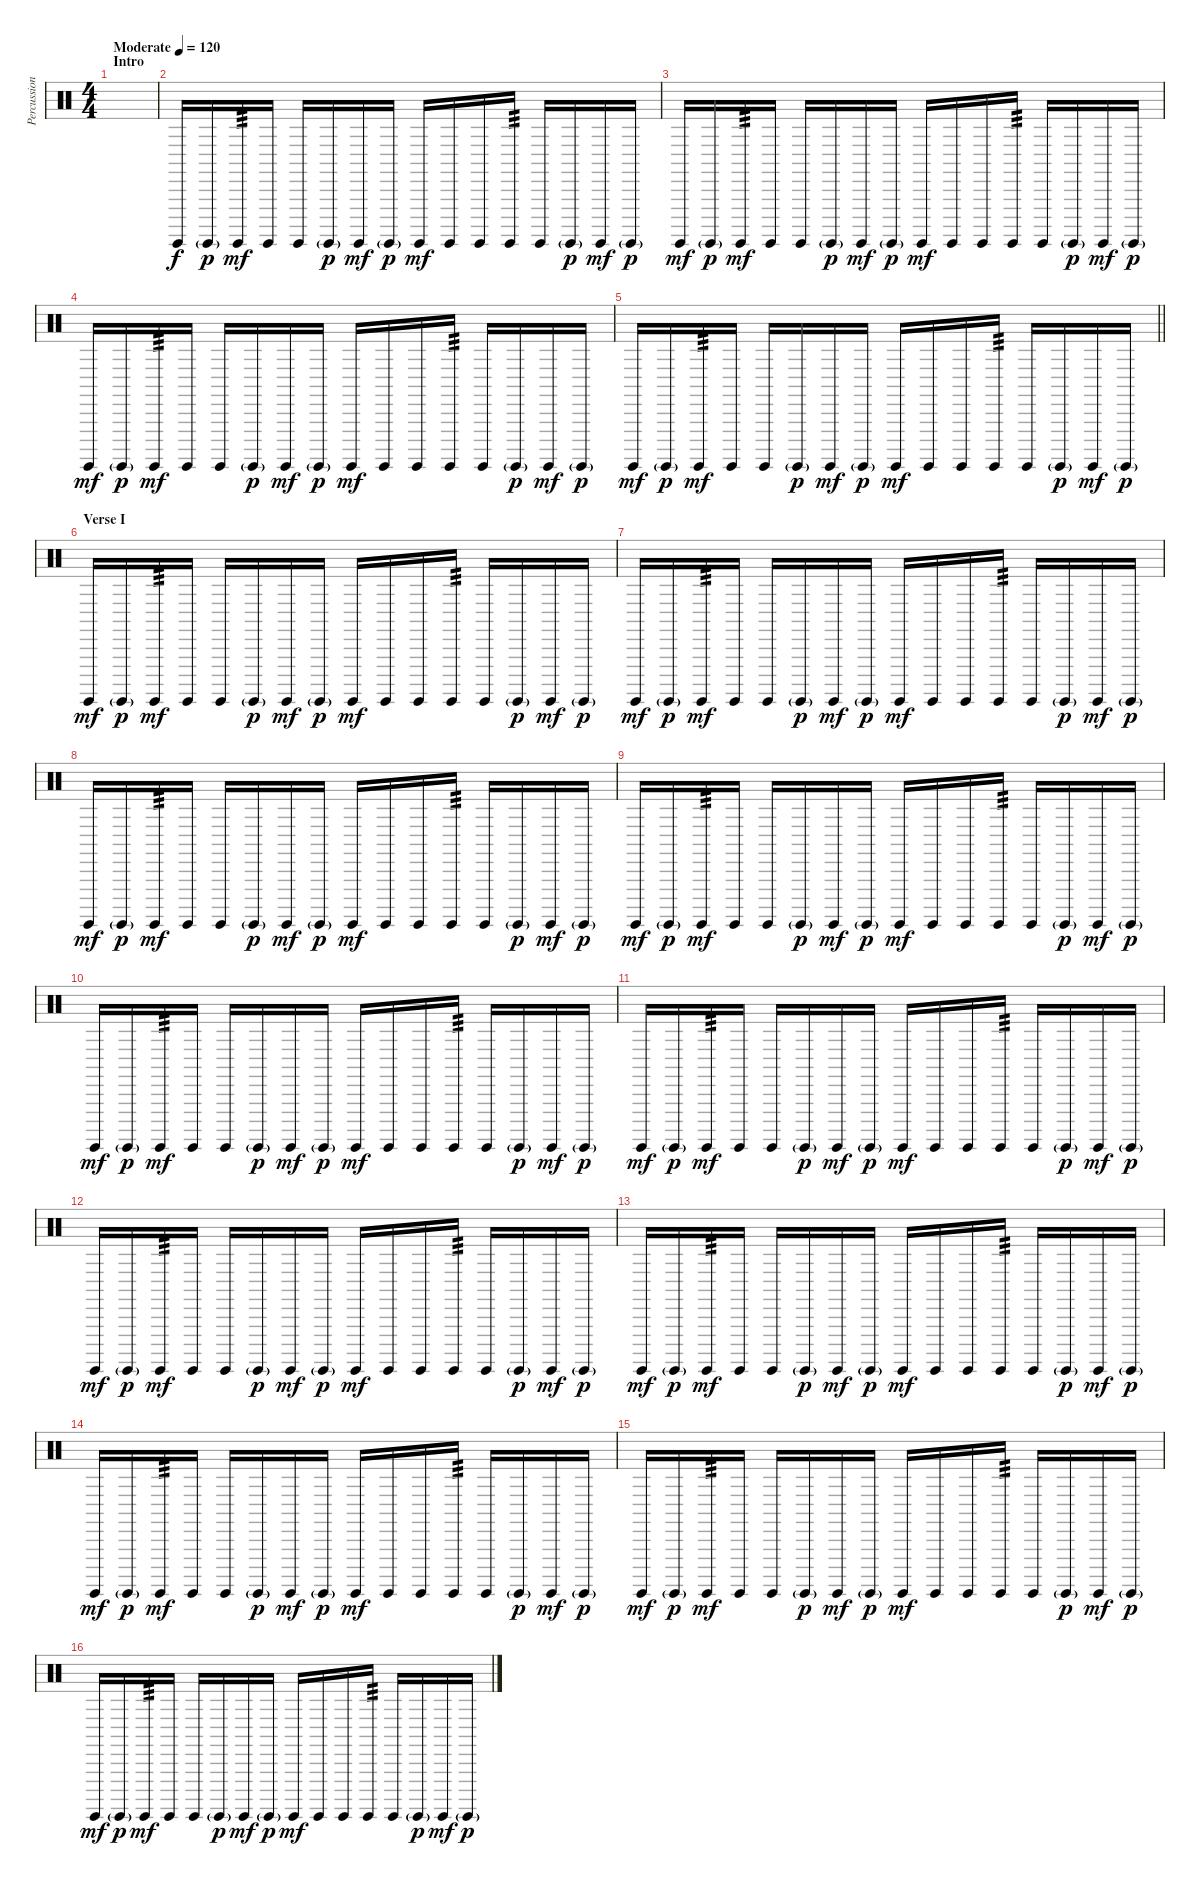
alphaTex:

\track ("Percussions" "Percussion") {instrument percussion}
\staff {score}
\articulation defaults
\ts (4 4)
\section ("" "Intro")
\tempo (120 "Moderate")
\clef neutral
\ks c
|
"Surdo (hit)".16 "Surdo (hit)"{g}.16{dy p} "Surdo (hit)".16{tp 3 dy mf} "Surdo (hit)".16 "Surdo (hit)".16 "Surdo (hit)"{g}.16{dy p} "Surdo (hit)".16{dy mf} "Surdo (hit)"{g}.16{dy p} "Surdo (hit)".16{dy mf} "Surdo (hit)".16 "Surdo (hit)".16 "Surdo (hit)".16{tp 3} "Surdo (hit)".16 "Surdo (hit)"{g}.16{dy p} "Surdo (hit)".16{dy mf} "Surdo (hit)"{g}.16{dy p} |
"Surdo (hit)".16{dy mf} "Surdo (hit)"{g}.16{dy p} "Surdo (hit)".16{tp 3 dy mf} "Surdo (hit)".16 "Surdo (hit)".16 "Surdo (hit)"{g}.16{dy p} "Surdo (hit)".16{dy mf} "Surdo (hit)"{g}.16{dy p} "Surdo (hit)".16{dy mf} "Surdo (hit)".16 "Surdo (hit)".16 "Surdo (hit)".16{tp 3} "Surdo (hit)".16 "Surdo (hit)"{g}.16{dy p} "Surdo (hit)".16{dy mf} "Surdo (hit)"{g}.16{dy p} |
"Surdo (hit)".16{dy mf} "Surdo (hit)"{g}.16{dy p} "Surdo (hit)".16{tp 3 dy mf} "Surdo (hit)".16 "Surdo (hit)".16 "Surdo (hit)"{g}.16{dy p} "Surdo (hit)".16{dy mf} "Surdo (hit)"{g}.16{dy p} "Surdo (hit)".16{dy mf} "Surdo (hit)".16 "Surdo (hit)".16 "Surdo (hit)".16{tp 3} "Surdo (hit)".16 "Surdo (hit)"{g}.16{dy p} "Surdo (hit)".16{dy mf} "Surdo (hit)"{g}.16{dy p} |
\barLineRight lightlight "Surdo (hit)".16{dy mf} "Surdo (hit)"{g}.16{dy p} "Surdo (hit)".16{tp 3 dy mf} "Surdo (hit)".16 "Surdo (hit)".16 "Surdo (hit)"{g}.16{dy p} "Surdo (hit)".16{dy mf} "Surdo (hit)"{g}.16{dy p} "Surdo (hit)".16{dy mf} "Surdo (hit)".16 "Surdo (hit)".16 "Surdo (hit)".16{tp 3} "Surdo (hit)".16 "Surdo (hit)"{g}.16{dy p} "Surdo (hit)".16{dy mf} "Surdo (hit)"{g}.16{dy p}
|
\section ("" "Verse I")
"Surdo (hit)".16{dy mf} "Surdo (hit)"{g}.16{dy p} "Surdo (hit)".16{tp 3 dy mf} "Surdo (hit)".16 "Surdo (hit)".16 "Surdo (hit)"{g}.16{dy p} "Surdo (hit)".16{dy mf} "Surdo (hit)"{g}.16{dy p} "Surdo (hit)".16{dy mf} "Surdo (hit)".16 "Surdo (hit)".16 "Surdo (hit)".16{tp 3} "Surdo (hit)".16 "Surdo (hit)"{g}.16{dy p} "Surdo (hit)".16{dy mf} "Surdo (hit)"{g}.16{dy p} |
"Surdo (hit)".16{dy mf} "Surdo (hit)"{g}.16{dy p} "Surdo (hit)".16{tp 3 dy mf} "Surdo (hit)".16 "Surdo (hit)".16 "Surdo (hit)"{g}.16{dy p} "Surdo (hit)".16{dy mf} "Surdo (hit)"{g}.16{dy p} "Surdo (hit)".16{dy mf} "Surdo (hit)".16 "Surdo (hit)".16 "Surdo (hit)".16{tp 3} "Surdo (hit)".16 "Surdo (hit)"{g}.16{dy p} "Surdo (hit)".16{dy mf} "Surdo (hit)"{g}.16{dy p} |
"Surdo (hit)".16{dy mf} "Surdo (hit)"{g}.16{dy p} "Surdo (hit)".16{tp 3 dy mf} "Surdo (hit)".16 "Surdo (hit)".16 "Surdo (hit)"{g}.16{dy p} "Surdo (hit)".16{dy mf} "Surdo (hit)"{g}.16{dy p} "Surdo (hit)".16{dy mf} "Surdo (hit)".16 "Surdo (hit)".16 "Surdo (hit)".16{tp 3} "Surdo (hit)".16 "Surdo (hit)"{g}.16{dy p} "Surdo (hit)".16{dy mf} "Surdo (hit)"{g}.16{dy p} |
"Surdo (hit)".16{dy mf} "Surdo (hit)"{g}.16{dy p} "Surdo (hit)".16{tp 3 dy mf} "Surdo (hit)".16 "Surdo (hit)".16 "Surdo (hit)"{g}.16{dy p} "Surdo (hit)".16{dy mf} "Surdo (hit)"{g}.16{dy p} "Surdo (hit)".16{dy mf} "Surdo (hit)".16 "Surdo (hit)".16 "Surdo (hit)".16{tp 3} "Surdo (hit)".16 "Surdo (hit)"{g}.16{dy p} "Surdo (hit)".16{dy mf} "Surdo (hit)"{g}.16{dy p} |
"Surdo (hit)".16{dy mf} "Surdo (hit)"{g}.16{dy p} "Surdo (hit)".16{tp 3 dy mf} "Surdo (hit)".16 "Surdo (hit)".16 "Surdo (hit)"{g}.16{dy p} "Surdo (hit)".16{dy mf} "Surdo (hit)"{g}.16{dy p} "Surdo (hit)".16{dy mf} "Surdo (hit)".16 "Surdo (hit)".16 "Surdo (hit)".16{tp 3} "Surdo (hit)".16 "Surdo (hit)"{g}.16{dy p} "Surdo (hit)".16{dy mf} "Surdo (hit)"{g}.16{dy p} |
"Surdo (hit)".16{dy mf} "Surdo (hit)"{g}.16{dy p} "Surdo (hit)".16{tp 3 dy mf} "Surdo (hit)".16 "Surdo (hit)".16 "Surdo (hit)"{g}.16{dy p} "Surdo (hit)".16{dy mf} "Surdo (hit)"{g}.16{dy p} "Surdo (hit)".16{dy mf} "Surdo (hit)".16 "Surdo (hit)".16 "Surdo (hit)".16{tp 3} "Surdo (hit)".16 "Surdo (hit)"{g}.16{dy p} "Surdo (hit)".16{dy mf} "Surdo (hit)"{g}.16{dy p} |
"Surdo (hit)".16{dy mf} "Surdo (hit)"{g}.16{dy p} "Surdo (hit)".16{tp 3 dy mf} "Surdo (hit)".16 "Surdo (hit)".16 "Surdo (hit)"{g}.16{dy p} "Surdo (hit)".16{dy mf} "Surdo (hit)"{g}.16{dy p} "Surdo (hit)".16{dy mf} "Surdo (hit)".16 "Surdo (hit)".16 "Surdo (hit)".16{tp 3} "Surdo (hit)".16 "Surdo (hit)"{g}.16{dy p} "Surdo (hit)".16{dy mf} "Surdo (hit)"{g}.16{dy p} |
"Surdo (hit)".16{dy mf} "Surdo (hit)"{g}.16{dy p} "Surdo (hit)".16{tp 3 dy mf} "Surdo (hit)".16 "Surdo (hit)".16 "Surdo (hit)"{g}.16{dy p} "Surdo (hit)".16{dy mf} "Surdo (hit)"{g}.16{dy p} "Surdo (hit)".16{dy mf} "Surdo (hit)".16 "Surdo (hit)".16 "Surdo (hit)".16{tp 3} "Surdo (hit)".16 "Surdo (hit)"{g}.16{dy p} "Surdo (hit)".16{dy mf} "Surdo (hit)"{g}.16{dy p} |
"Surdo (hit)".16{dy mf} "Surdo (hit)"{g}.16{dy p} "Surdo (hit)".16{tp 3 dy mf} "Surdo (hit)".16 "Surdo (hit)".16 "Surdo (hit)"{g}.16{dy p} "Surdo (hit)".16{dy mf} "Surdo (hit)"{g}.16{dy p} "Surdo (hit)".16{dy mf} "Surdo (hit)".16 "Surdo (hit)".16 "Surdo (hit)".16{tp 3} "Surdo (hit)".16 "Surdo (hit)"{g}.16{dy p} "Surdo (hit)".16{dy mf} "Surdo (hit)"{g}.16{dy p} |
"Surdo (hit)".16{dy mf} "Surdo (hit)"{g}.16{dy p} "Surdo (hit)".16{tp 3 dy mf} "Surdo (hit)".16 "Surdo (hit)".16 "Surdo (hit)"{g}.16{dy p} "Surdo (hit)".16{dy mf} "Surdo (hit)"{g}.16{dy p} "Surdo (hit)".16{dy mf} "Surdo (hit)".16 "Surdo (hit)".16 "Surdo (hit)".16{tp 3} "Surdo (hit)".16 "Surdo (hit)"{g}.16{dy p} "Surdo (hit)".16{dy mf} "Surdo (hit)"{g}.16{dy p} |
"Surdo (hit)".16{dy mf} "Surdo (hit)"{g}.16{dy p} "Surdo (hit)".16{tp 3 dy mf} "Surdo (hit)".16 "Surdo (hit)".16 "Surdo (hit)"{g}.16{dy p} "Surdo (hit)".16{dy mf} "Surdo (hit)"{g}.16{dy p} "Surdo (hit)".16{dy mf} "Surdo (hit)".16 "Surdo (hit)".16 "Surdo (hit)".16{tp 3} "Surdo (hit)".16 "Surdo (hit)"{g}.16{dy p} "Surdo (hit)".16{dy mf} "Surdo (hit)"{g}.16{dy p}
